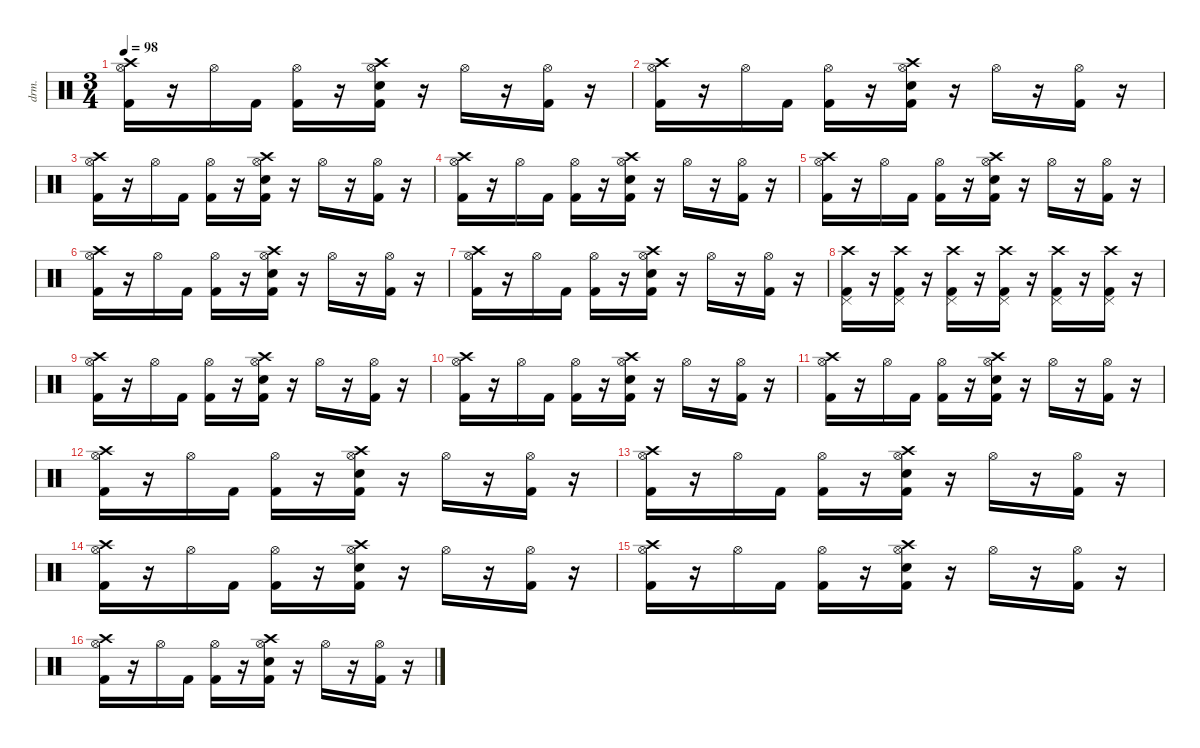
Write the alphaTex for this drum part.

\defaultSystemsLayout 4
\hideDynamics
\bracketExtendMode nobrackets
\otherSystemsTrackNameOrientation horizontal
\track ("Ударные" "drm.") {instrument percussion}
\staff {score}
\articulation defaults
\ts (3 4)
\tempo 98
\clef neutral
\ks c
("Crash high (hit)" "Kick (hit) 2" "Hi-Hat (open)").16{dy fff beam Down} r.16{beam Down} "Hi-Hat (open)".16{dy f beam Down} "Kick (hit) 2".16{beam Down} ("Kick (hit) 2" "Hi-Hat (open)").16{beam Down} r.16{beam Down} ("Crash high (hit)" "Snare (hit) 2" "Kick (hit) 2" "Hi-Hat (open)").16{beam Down} r.16{beam Down} "Hi-Hat (open)".16{beam Down} r.16{beam Down} ("Kick (hit) 2" "Hi-Hat (open)").16{beam Down} r.16{beam Down} |
("Crash high (hit)" "Kick (hit) 2" "Hi-Hat (open)").16{dy fff beam Down} r.16{beam Down} "Hi-Hat (open)".16{dy f beam Down} "Kick (hit) 2".16{dy mf beam Down} ("Kick (hit) 2" "Hi-Hat (open)").16{dy f beam Down} r.16{beam Down} ("Crash high (hit)" "Snare (hit) 2" "Kick (hit) 2" "Hi-Hat (open)").16{beam Down} r.16{beam Down} "Hi-Hat (open)".16{beam Down} r.16{beam Down} ("Kick (hit) 2" "Hi-Hat (open)").16{beam Down} r.16{beam Down} |
("Crash high (hit)" "Kick (hit) 2" "Hi-Hat (open)").16{dy fff beam Down} r.16{beam Down} "Hi-Hat (open)".16{dy f beam Down} "Kick (hit) 2".16{dy mf beam Down} ("Kick (hit) 2" "Hi-Hat (open)").16{dy f beam Down} r.16{beam Down} ("Crash high (hit)" "Snare (hit) 2" "Kick (hit) 2" "Hi-Hat (open)").16{beam Down} r.16{beam Down} "Hi-Hat (open)".16{beam Down} r.16{beam Down} ("Kick (hit) 2" "Hi-Hat (open)").16{beam Down} r.16{beam Down} |
("Crash high (hit)" "Kick (hit) 2" "Hi-Hat (open)").16{dy fff beam Down} r.16{beam Down} "Hi-Hat (open)".16{dy f beam Down} "Kick (hit) 2".16{beam Down} ("Kick (hit) 2" "Hi-Hat (open)").16{beam Down} r.16{beam Down} ("Crash high (hit)" "Snare (hit) 2" "Kick (hit) 2" "Hi-Hat (open)").16{beam Down} r.16{beam Down} "Hi-Hat (open)".16{beam Down} r.16{beam Down} ("Kick (hit) 2" "Hi-Hat (open)").16{beam Down} r.16{beam Down} |
("Crash high (hit)" "Kick (hit) 2" "Hi-Hat (open)").16{dy fff beam Down} r.16{beam Down} "Hi-Hat (open)".16{dy f beam Down} "Kick (hit) 2".16{beam Down} ("Kick (hit) 2" "Hi-Hat (open)").16{beam Down} r.16{beam Down} ("Crash high (hit)" "Snare (hit) 2" "Kick (hit) 2" "Hi-Hat (open)").16{beam Down} r.16{beam Down} "Hi-Hat (open)".16{beam Down} r.16{beam Down} ("Kick (hit) 2" "Hi-Hat (open)").16{beam Down} r.16{beam Down} |
("Crash high (hit)" "Kick (hit) 2" "Hi-Hat (open)").16{dy fff beam Down} r.16{beam Down} "Hi-Hat (open)".16{dy f beam Down} "Kick (hit) 2".16{dy mf beam Down} ("Kick (hit) 2" "Hi-Hat (open)").16{dy f beam Down} r.16{beam Down} ("Crash high (hit)" "Snare (hit) 2" "Kick (hit) 2" "Hi-Hat (open)").16{beam Down} r.16{beam Down} "Hi-Hat (open)".16{beam Down} r.16{beam Down} ("Kick (hit) 2" "Hi-Hat (open)").16{beam Down} r.16{beam Down} |
("Crash high (hit)" "Kick (hit) 2" "Hi-Hat (open)").16{dy fff beam Down} r.16{beam Down} "Hi-Hat (open)".16{dy f beam Down} "Kick (hit) 2".16{dy mf beam Down} ("Kick (hit) 2" "Hi-Hat (open)").16{dy f beam Down} r.16{beam Down} ("Crash high (hit)" "Snare (hit) 2" "Kick (hit) 2" "Hi-Hat (open)").16{beam Down} r.16{beam Down} "Hi-Hat (open)".16{beam Down} r.16{beam Down} ("Kick (hit) 2" "Hi-Hat (open)").16{beam Down} r.16{beam Down} |
("Crash high (hit)" "Kick (hit) 2" "Pedal Hi-Hat (hit)").16{dy fff beam Down} r.16{beam Down} ("Crash high (hit)" "Kick (hit) 2" "Pedal Hi-Hat (hit)").16{dy mf beam Down} r.16{beam Down} ("Crash high (hit)" "Kick (hit) 2" "Pedal Hi-Hat (hit)").16{beam Down} r.16{beam Down} ("Crash high (hit)" "Kick (hit) 2" "Pedal Hi-Hat (hit)").16{beam Down} r.16{beam Down} ("Crash high (hit)" "Kick (hit) 2" "Pedal Hi-Hat (hit)").16{beam Down} r.16{beam Down} ("Crash high (hit)" "Kick (hit) 2" "Pedal Hi-Hat (hit)").16{beam Down} r.16{beam Down} |
("Crash high (hit)" "Kick (hit) 2" "Hi-Hat (open)").16{dy fff beam Down} r.16{beam Down} "Hi-Hat (open)".16{dy f beam Down} "Kick (hit) 2".16{beam Down} ("Kick (hit) 2" "Hi-Hat (open)").16{beam Down} r.16{beam Down} ("Crash high (hit)" "Snare (hit) 2" "Kick (hit) 2" "Hi-Hat (open)").16{beam Down} r.16{beam Down} "Hi-Hat (open)".16{beam Down} r.16{beam Down} ("Kick (hit) 2" "Hi-Hat (open)").16{beam Down} r.16{beam Down} |
("Crash high (hit)" "Kick (hit) 2" "Hi-Hat (open)").16{dy fff beam Down} r.16{beam Down} "Hi-Hat (open)".16{dy f beam Down} "Kick (hit) 2".16{dy mf beam Down} ("Kick (hit) 2" "Hi-Hat (open)").16{dy f beam Down} r.16{beam Down} ("Crash high (hit)" "Snare (hit) 2" "Kick (hit) 2" "Hi-Hat (open)").16{beam Down} r.16{beam Down} "Hi-Hat (open)".16{beam Down} r.16{beam Down} ("Kick (hit) 2" "Hi-Hat (open)").16{beam Down} r.16{beam Down} |
("Crash high (hit)" "Kick (hit) 2" "Hi-Hat (open)").16{dy fff beam Down} r.16{beam Down} "Hi-Hat (open)".16{dy f beam Down} "Kick (hit) 2".16{dy mf beam Down} ("Kick (hit) 2" "Hi-Hat (open)").16{dy f beam Down} r.16{beam Down} ("Crash high (hit)" "Snare (hit) 2" "Kick (hit) 2" "Hi-Hat (open)").16{beam Down} r.16{beam Down} "Hi-Hat (open)".16{beam Down} r.16{beam Down} ("Kick (hit) 2" "Hi-Hat (open)").16{beam Down} r.16{beam Down} |
("Crash high (hit)" "Kick (hit) 2" "Hi-Hat (open)").16{dy fff beam Down} r.16{beam Down} "Hi-Hat (open)".16{dy f beam Down} "Kick (hit) 2".16{beam Down} ("Kick (hit) 2" "Hi-Hat (open)").16{beam Down} r.16{beam Down} ("Crash high (hit)" "Snare (hit) 2" "Kick (hit) 2" "Hi-Hat (open)").16{beam Down} r.16{beam Down} "Hi-Hat (open)".16{beam Down} r.16{beam Down} ("Kick (hit) 2" "Hi-Hat (open)").16{beam Down} r.16{beam Down} |
("Crash high (hit)" "Kick (hit) 2" "Hi-Hat (open)").16{dy fff beam Down} r.16{beam Down} "Hi-Hat (open)".16{dy f beam Down} "Kick (hit) 2".16{beam Down} ("Kick (hit) 2" "Hi-Hat (open)").16{beam Down} r.16{beam Down} ("Crash high (hit)" "Snare (hit) 2" "Kick (hit) 2" "Hi-Hat (open)").16{beam Down} r.16{beam Down} "Hi-Hat (open)".16{beam Down} r.16{beam Down} ("Kick (hit) 2" "Hi-Hat (open)").16{beam Down} r.16{beam Down} |
("Crash high (hit)" "Kick (hit) 2" "Hi-Hat (open)").16{dy fff beam Down} r.16{beam Down} "Hi-Hat (open)".16{dy f beam Down} "Kick (hit) 2".16{dy mf beam Down} ("Kick (hit) 2" "Hi-Hat (open)").16{dy f beam Down} r.16{beam Down} ("Crash high (hit)" "Snare (hit) 2" "Kick (hit) 2" "Hi-Hat (open)").16{beam Down} r.16{beam Down} "Hi-Hat (open)".16{beam Down} r.16{beam Down} ("Kick (hit) 2" "Hi-Hat (open)").16{beam Down} r.16{beam Down} |
("Crash high (hit)" "Kick (hit) 2" "Hi-Hat (open)").16{dy fff beam Down} r.16{beam Down} "Hi-Hat (open)".16{dy f beam Down} "Kick (hit) 2".16{dy mf beam Down} ("Kick (hit) 2" "Hi-Hat (open)").16{dy f beam Down} r.16{beam Down} ("Crash high (hit)" "Snare (hit) 2" "Kick (hit) 2" "Hi-Hat (open)").16{beam Down} r.16{beam Down} "Hi-Hat (open)".16{beam Down} r.16{beam Down} ("Kick (hit) 2" "Hi-Hat (open)").16{beam Down} r.16{beam Down} |
("Crash high (hit)" "Kick (hit) 2" "Hi-Hat (open)").16{dy fff beam Down} r.16{beam Down} "Hi-Hat (open)".16{dy f beam Down} "Kick (hit) 2".16{beam Down} ("Kick (hit) 2" "Hi-Hat (open)").16{beam Down} r.16{beam Down} ("Crash high (hit)" "Snare (hit) 2" "Kick (hit) 2" "Hi-Hat (open)").16{beam Down} r.16{beam Down} "Hi-Hat (open)".16{beam Down} r.16{beam Down} ("Kick (hit) 2" "Hi-Hat (open)").16{beam Down} r.16{beam Down}
